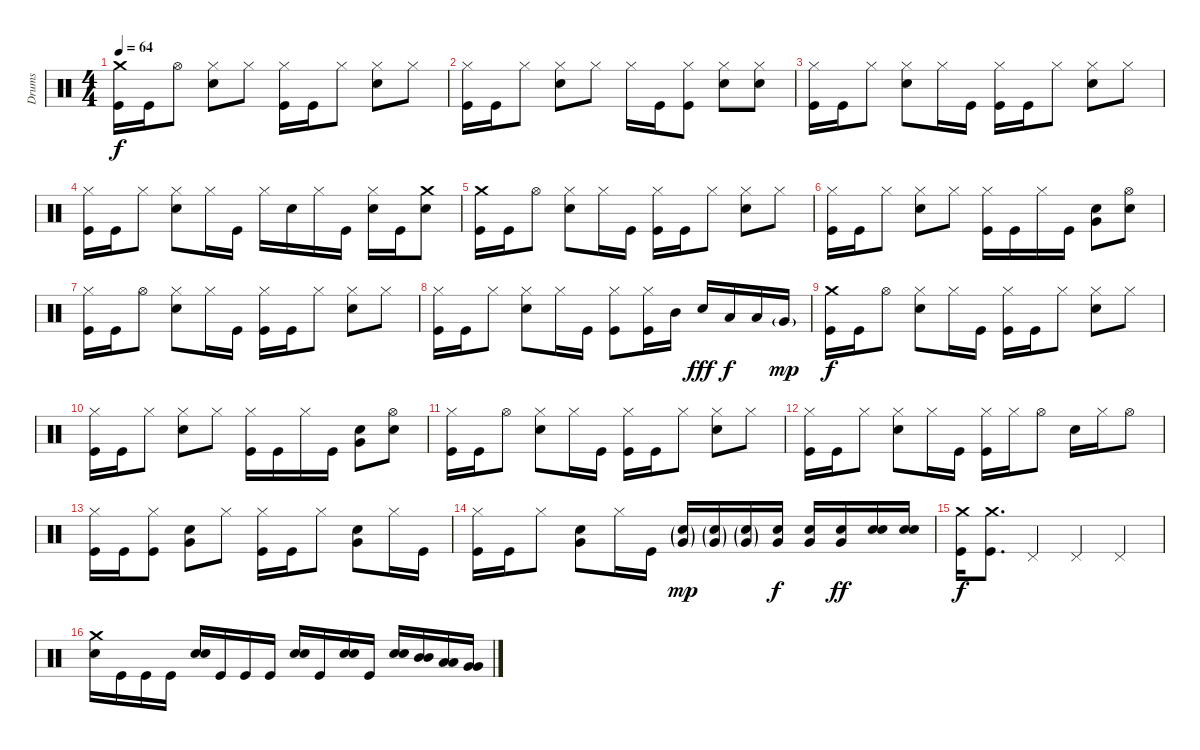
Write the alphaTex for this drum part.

\track ("Drums" "Drums") {instrument percussion}
\staff {score}
\articulation defaults
\ts (4 4)
\tempo 64
\clef neutral
\ks c
("Crash medium (hit)" "Kick (hit)").16{dy f} "Kick (hit)".16 "Hi-Hat (open)".8 ("Hi-Hat (closed)" "Snare (hit) 2").8 "Hi-Hat (closed)".8 ("Hi-Hat (closed)" "Kick (hit)").16 "Kick (hit)".16 "Hi-Hat (closed)".8 ("Hi-Hat (closed)" "Snare (hit) 2").8 "Hi-Hat (closed)".8 |
("Hi-Hat (closed)" "Kick (hit)").16 "Kick (hit)".16 "Hi-Hat (closed)".8 ("Hi-Hat (closed)" "Snare (hit) 2").8 "Hi-Hat (closed)".8 "Hi-Hat (closed)".16 "Kick (hit)".16 ("Hi-Hat (closed)" "Kick (hit)").8 ("Hi-Hat (closed)" "Snare (hit) 2").8 ("Hi-Hat (closed)" "Snare (hit) 2").8 |
("Hi-Hat (closed)" "Kick (hit)").16 "Kick (hit)".16 "Hi-Hat (closed)".8 ("Hi-Hat (closed)" "Snare (hit) 2").8 "Hi-Hat (closed)".16 "Kick (hit)".16 ("Hi-Hat (closed)" "Kick (hit)").16 "Kick (hit)".16 "Hi-Hat (closed)".8 ("Hi-Hat (closed)" "Snare (hit) 2").8 "Hi-Hat (closed)".8 |
("Hi-Hat (closed)" "Kick (hit)").16 "Kick (hit)".16 "Hi-Hat (closed)".8 ("Hi-Hat (closed)" "Snare (hit) 2").8 "Hi-Hat (closed)".16 "Kick (hit)".16 "Hi-Hat (closed)".16 "Snare (hit) 2".16 "Hi-Hat (closed)".16 "Kick (hit)".16 ("Hi-Hat (closed)" "Snare (hit) 2").16 "Kick (hit)".16 ("Crash medium (hit)" "Snare (hit) 2").8 |
("Crash medium (hit)" "Kick (hit)").16 "Kick (hit)".16 "Hi-Hat (open)".8 ("Hi-Hat (closed)" "Snare (hit) 2").8 "Hi-Hat (closed)".16 "Kick (hit)".16 ("Hi-Hat (closed)" "Kick (hit)").16 "Kick (hit)".16 "Hi-Hat (closed)".8 ("Hi-Hat (closed)" "Snare (hit) 2").8 "Hi-Hat (closed)".8 |
("Hi-Hat (closed)" "Kick (hit)").16 "Kick (hit)".16 "Hi-Hat (closed)".8 ("Hi-Hat (closed)" "Snare (hit) 2").8 "Hi-Hat (closed)".8 ("Hi-Hat (closed)" "Kick (hit)").16 "Kick (hit)".16 "Hi-Hat (closed)".16 "Kick (hit)".16 ("Snare (hit) 2" "Very Low Tom (hit)").8 ("Hi-Hat (open)" "Snare (hit) 2").8 |
("Hi-Hat (closed)" "Kick (hit)").16 "Kick (hit)".16 "Hi-Hat (open)".8 ("Hi-Hat (closed)" "Snare (hit) 2").8 "Hi-Hat (closed)".16 "Kick (hit)".16 ("Hi-Hat (closed)" "Kick (hit)").16 "Kick (hit)".16 "Hi-Hat (closed)".8 ("Hi-Hat (closed)" "Snare (hit) 2").8 "Hi-Hat (closed)".8 |
("Hi-Hat (closed)" "Kick (hit)").16 "Kick (hit)".16 "Hi-Hat (closed)".8 ("Hi-Hat (closed)" "Snare (hit) 2").8 "Hi-Hat (closed)".16 "Kick (hit)".16 ("Hi-Hat (closed)" "Kick (hit)").8 ("Hi-Hat (closed)" "Kick (hit)").16 "Mid Tom (hit)".16 "Snare (hit) 2".16{dy fff} "Low Tom (hit)".16{dy f} "Low Tom (hit)".16 "Very Low Tom (hit)"{g}.16{dy mp} |
("Crash medium (hit)" "Kick (hit)").16{dy f} "Kick (hit)".16 "Hi-Hat (open)".8 ("Hi-Hat (closed)" "Snare (hit) 2").8 "Hi-Hat (closed)".16 "Kick (hit)".16 ("Hi-Hat (closed)" "Kick (hit)").16 "Kick (hit)".16 "Hi-Hat (closed)".8 ("Hi-Hat (closed)" "Snare (hit) 2").8 "Hi-Hat (closed)".8 |
("Hi-Hat (closed)" "Kick (hit)").16 "Kick (hit)".16 "Hi-Hat (closed)".8 ("Hi-Hat (closed)" "Snare (hit) 2").8 "Hi-Hat (closed)".8 ("Hi-Hat (closed)" "Kick (hit)").16 "Kick (hit)".16 "Hi-Hat (closed)".16 "Kick (hit)".16 ("Snare (hit) 2" "Very Low Tom (hit)").8 ("Hi-Hat (open)" "Snare (hit) 2").8 |
("Hi-Hat (closed)" "Kick (hit)").16 "Kick (hit)".16 "Hi-Hat (open)".8 ("Hi-Hat (closed)" "Snare (hit) 2").8 "Hi-Hat (closed)".16 "Kick (hit)".16 ("Hi-Hat (closed)" "Kick (hit)").16 "Kick (hit)".16 "Hi-Hat (closed)".8 ("Hi-Hat (closed)" "Snare (hit) 2").8 "Hi-Hat (closed)".8 |
("Hi-Hat (closed)" "Kick (hit)").16 "Kick (hit)".16 "Hi-Hat (closed)".8 ("Hi-Hat (closed)" "Snare (hit) 2").8 "Hi-Hat (closed)".16 "Kick (hit)".16 ("Hi-Hat (closed)" "Kick (hit)").16 "Hi-Hat (closed)".16 "Hi-Hat (open)".8 "Snare (hit) 2".16 "Hi-Hat (closed)".16 "Hi-Hat (open)".8 |
("Hi-Hat (closed)" "Kick (hit)").16 "Kick (hit)".16 ("Hi-Hat (closed)" "Kick (hit)").8 ("Snare (hit) 2" "Very Low Tom (hit)").8 "Hi-Hat (closed)".8 ("Hi-Hat (closed)" "Kick (hit)").16 "Kick (hit)".16 "Hi-Hat (closed)".8 ("Snare (hit) 2" "Very Low Tom (hit)").8 "Hi-Hat (closed)".16 "Kick (hit)".16 |
("Hi-Hat (closed)" "Kick (hit)").16 "Kick (hit)".16 "Hi-Hat (closed)".8 ("Snare (hit) 2" "Very Low Tom (hit)").8 "Hi-Hat (closed)".16 "Kick (hit)".16 ("Very Low Tom (hit)"{g} "Snare (hit) 2"{g}).16{dy mp} ("Very Low Tom (hit)"{g} "Snare (hit) 2"{g}).16 ("Very Low Tom (hit)"{g} "Snare (hit) 2"{g}).16 ("Very Low Tom (hit)" "Snare (hit) 2").16{dy f} ("Very Low Tom (hit)" "Snare (hit) 2").16 ("Very Low Tom (hit)" "Snare (hit) 2").16{dy ff} ("Snare (hit) 2" "Snare (hit) 2").16 ("Snare (hit) 2" "Snare (hit) 2").16 |
("Crash medium (hit)" "Kick (hit)").16{dy f} ("Crash medium (hit)" "Kick (hit)").8{d} "Pedal Hi-Hat (hit)".4 "Pedal Hi-Hat (hit)".4 "Pedal Hi-Hat (hit)".4 |
("Crash medium (hit)" "Snare (hit) 2").16 "Kick (hit)".16 "Kick (hit)".16 "Kick (hit)".16 ("Snare (hit) 2" "Snare (hit) 2").16 "Kick (hit)".16 "Kick (hit)".16 "Kick (hit)".16 ("Snare (hit) 2" "Snare (hit) 2").16 "Kick (hit)".16 ("Snare (hit) 2" "Snare (hit) 2").16 "Kick (hit)".16 ("Snare (hit) 2" "Snare (hit) 2").16 ("Mid Tom (hit)" "Mid Tom (hit)").16 ("Low Tom (hit)" "Low Tom (hit)").16 ("Very Low Tom (hit)" "Very Low Tom (hit)").16
